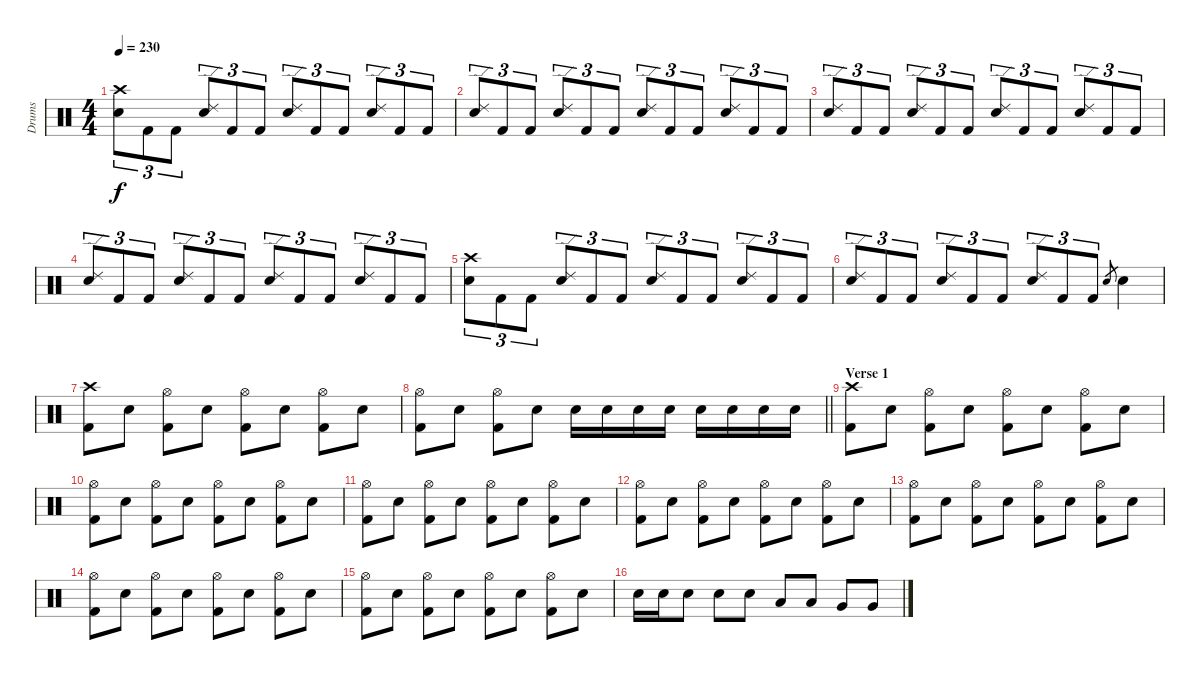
\track ("Drums" "Drums") {instrument percussion}
\staff {score}
\articulation defaults
\ts (4 4)
\tempo 230
\clef neutral
\ks c
("Crash high (hit)" "Electric Snare (hit)").8{tu (3 2) dy f} "Kick (hit) 2".8{tu (3 2)} "Kick (hit) 2".8{tu (3 2)} ("Ride (edge) 2" "Electric Snare (hit)").8{tu (3 2)} "Kick (hit) 2".8{tu (3 2)} "Kick (hit) 2".8{tu (3 2)} ("Ride (edge) 2" "Electric Snare (hit)").8{tu (3 2)} "Kick (hit) 2".8{tu (3 2)} "Kick (hit) 2".8{tu (3 2)} ("Ride (edge) 2" "Electric Snare (hit)").8{tu (3 2)} "Kick (hit) 2".8{tu (3 2)} "Kick (hit) 2".8{tu (3 2)} |
("Ride (edge) 2" "Electric Snare (hit)").8{tu (3 2)} "Kick (hit) 2".8{tu (3 2)} "Kick (hit) 2".8{tu (3 2)} ("Ride (edge) 2" "Electric Snare (hit)").8{tu (3 2)} "Kick (hit) 2".8{tu (3 2)} "Kick (hit) 2".8{tu (3 2)} ("Ride (edge) 2" "Electric Snare (hit)").8{tu (3 2)} "Kick (hit) 2".8{tu (3 2)} "Kick (hit) 2".8{tu (3 2)} ("Ride (edge) 2" "Electric Snare (hit)").8{tu (3 2)} "Kick (hit) 2".8{tu (3 2)} "Kick (hit) 2".8{tu (3 2)} |
("Ride (edge) 2" "Electric Snare (hit)").8{tu (3 2)} "Kick (hit) 2".8{tu (3 2)} "Kick (hit) 2".8{tu (3 2)} ("Ride (edge) 2" "Electric Snare (hit)").8{tu (3 2)} "Kick (hit) 2".8{tu (3 2)} "Kick (hit) 2".8{tu (3 2)} ("Ride (edge) 2" "Electric Snare (hit)").8{tu (3 2)} "Kick (hit) 2".8{tu (3 2)} "Kick (hit) 2".8{tu (3 2)} ("Ride (edge) 2" "Electric Snare (hit)").8{tu (3 2)} "Kick (hit) 2".8{tu (3 2)} "Kick (hit) 2".8{tu (3 2)} |
("Ride (edge) 2" "Electric Snare (hit)").8{tu (3 2)} "Kick (hit) 2".8{tu (3 2)} "Kick (hit) 2".8{tu (3 2)} ("Ride (edge) 2" "Electric Snare (hit)").8{tu (3 2)} "Kick (hit) 2".8{tu (3 2)} "Kick (hit) 2".8{tu (3 2)} ("Ride (edge) 2" "Electric Snare (hit)").8{tu (3 2)} "Kick (hit) 2".8{tu (3 2)} "Kick (hit) 2".8{tu (3 2)} ("Ride (edge) 2" "Electric Snare (hit)").8{tu (3 2)} "Kick (hit) 2".8{tu (3 2)} "Kick (hit) 2".8{tu (3 2)} |
("Crash high (hit)" "Electric Snare (hit)").8{tu (3 2)} "Kick (hit) 2".8{tu (3 2)} "Kick (hit) 2".8{tu (3 2)} ("Ride (edge) 2" "Electric Snare (hit)").8{tu (3 2)} "Kick (hit) 2".8{tu (3 2)} "Kick (hit) 2".8{tu (3 2)} ("Ride (edge) 2" "Electric Snare (hit)").8{tu (3 2)} "Kick (hit) 2".8{tu (3 2)} "Kick (hit) 2".8{tu (3 2)} ("Ride (edge) 2" "Electric Snare (hit)").8{tu (3 2)} "Kick (hit) 2".8{tu (3 2)} "Kick (hit) 2".8{tu (3 2)} |
("Ride (edge) 2" "Electric Snare (hit)").8{tu (3 2)} "Kick (hit) 2".8{tu (3 2)} "Kick (hit) 2".8{tu (3 2)} ("Ride (edge) 2" "Electric Snare (hit)").8{tu (3 2)} "Kick (hit) 2".8{tu (3 2)} "Kick (hit) 2".8{tu (3 2)} ("Ride (edge) 2" "Electric Snare (hit)").8{tu (3 2)} "Kick (hit) 2".8{tu (3 2)} "Kick (hit) 2".8{tu (3 2)} "Electric Snare (hit)".8{gr} "Electric Snare (hit)".4 |
("Crash high (hit)" "Kick (hit) 2").8 "Electric Snare (hit)".8 ("Hi-Hat (open)" "Kick (hit) 2").8 "Electric Snare (hit)".8 ("Hi-Hat (open)" "Kick (hit) 2").8 "Electric Snare (hit)".8 ("Hi-Hat (open)" "Kick (hit) 2").8 "Electric Snare (hit)".8 |
\barLineRight lightlight
("Hi-Hat (open)" "Kick (hit) 2").8 "Electric Snare (hit)".8 ("Hi-Hat (open)" "Kick (hit) 2").8 "Electric Snare (hit)".8 "Electric Snare (hit)".16 "Electric Snare (hit)".16 "Electric Snare (hit)".16 "Electric Snare (hit)".16 "Electric Snare (hit)".16 "Electric Snare (hit)".16 "Electric Snare (hit)".16 "Electric Snare (hit)".16 |
\section ("" "Verse 1")
("Crash high (hit)" "Kick (hit) 2").8 "Electric Snare (hit)".8 ("Hi-Hat (open)" "Kick (hit) 2").8 "Electric Snare (hit)".8 ("Hi-Hat (open)" "Kick (hit) 2").8 "Electric Snare (hit)".8 ("Hi-Hat (open)" "Kick (hit) 2").8 "Electric Snare (hit)".8 |
("Hi-Hat (open)" "Kick (hit) 2").8 "Electric Snare (hit)".8 ("Hi-Hat (open)" "Kick (hit) 2").8 "Electric Snare (hit)".8 ("Hi-Hat (open)" "Kick (hit) 2").8 "Electric Snare (hit)".8 ("Hi-Hat (open)" "Kick (hit) 2").8 "Electric Snare (hit)".8 |
("Hi-Hat (open)" "Kick (hit) 2").8 "Electric Snare (hit)".8 ("Hi-Hat (open)" "Kick (hit) 2").8 "Electric Snare (hit)".8 ("Hi-Hat (open)" "Kick (hit) 2").8 "Electric Snare (hit)".8 ("Hi-Hat (open)" "Kick (hit) 2").8 "Electric Snare (hit)".8 |
("Hi-Hat (open)" "Kick (hit) 2").8 "Electric Snare (hit)".8 ("Hi-Hat (open)" "Kick (hit) 2").8 "Electric Snare (hit)".8 ("Hi-Hat (open)" "Kick (hit) 2").8 "Electric Snare (hit)".8 ("Hi-Hat (open)" "Kick (hit) 2").8 "Electric Snare (hit)".8 |
("Hi-Hat (open)" "Kick (hit) 2").8 "Electric Snare (hit)".8 ("Hi-Hat (open)" "Kick (hit) 2").8 "Electric Snare (hit)".8 ("Hi-Hat (open)" "Kick (hit) 2").8 "Electric Snare (hit)".8 ("Hi-Hat (open)" "Kick (hit) 2").8 "Electric Snare (hit)".8 |
("Hi-Hat (open)" "Kick (hit) 2").8 "Electric Snare (hit)".8 ("Hi-Hat (open)" "Kick (hit) 2").8 "Electric Snare (hit)".8 ("Hi-Hat (open)" "Kick (hit) 2").8 "Electric Snare (hit)".8 ("Hi-Hat (open)" "Kick (hit) 2").8 "Electric Snare (hit)".8 |
("Hi-Hat (open)" "Kick (hit) 2").8 "Electric Snare (hit)".8 ("Hi-Hat (open)" "Kick (hit) 2").8 "Electric Snare (hit)".8 ("Hi-Hat (open)" "Kick (hit) 2").8 "Electric Snare (hit)".8 ("Hi-Hat (open)" "Kick (hit) 2").8 "Electric Snare (hit)".8 |
"Electric Snare (hit)".16 "Electric Snare (hit)".16 "Electric Snare (hit)".8 "Electric Snare (hit)".8 "Electric Snare (hit)".8 "Low Tom (hit)".8 "Low Tom (hit)".8 "Very Low Tom (hit)".8 "Very Low Tom (hit)".8
